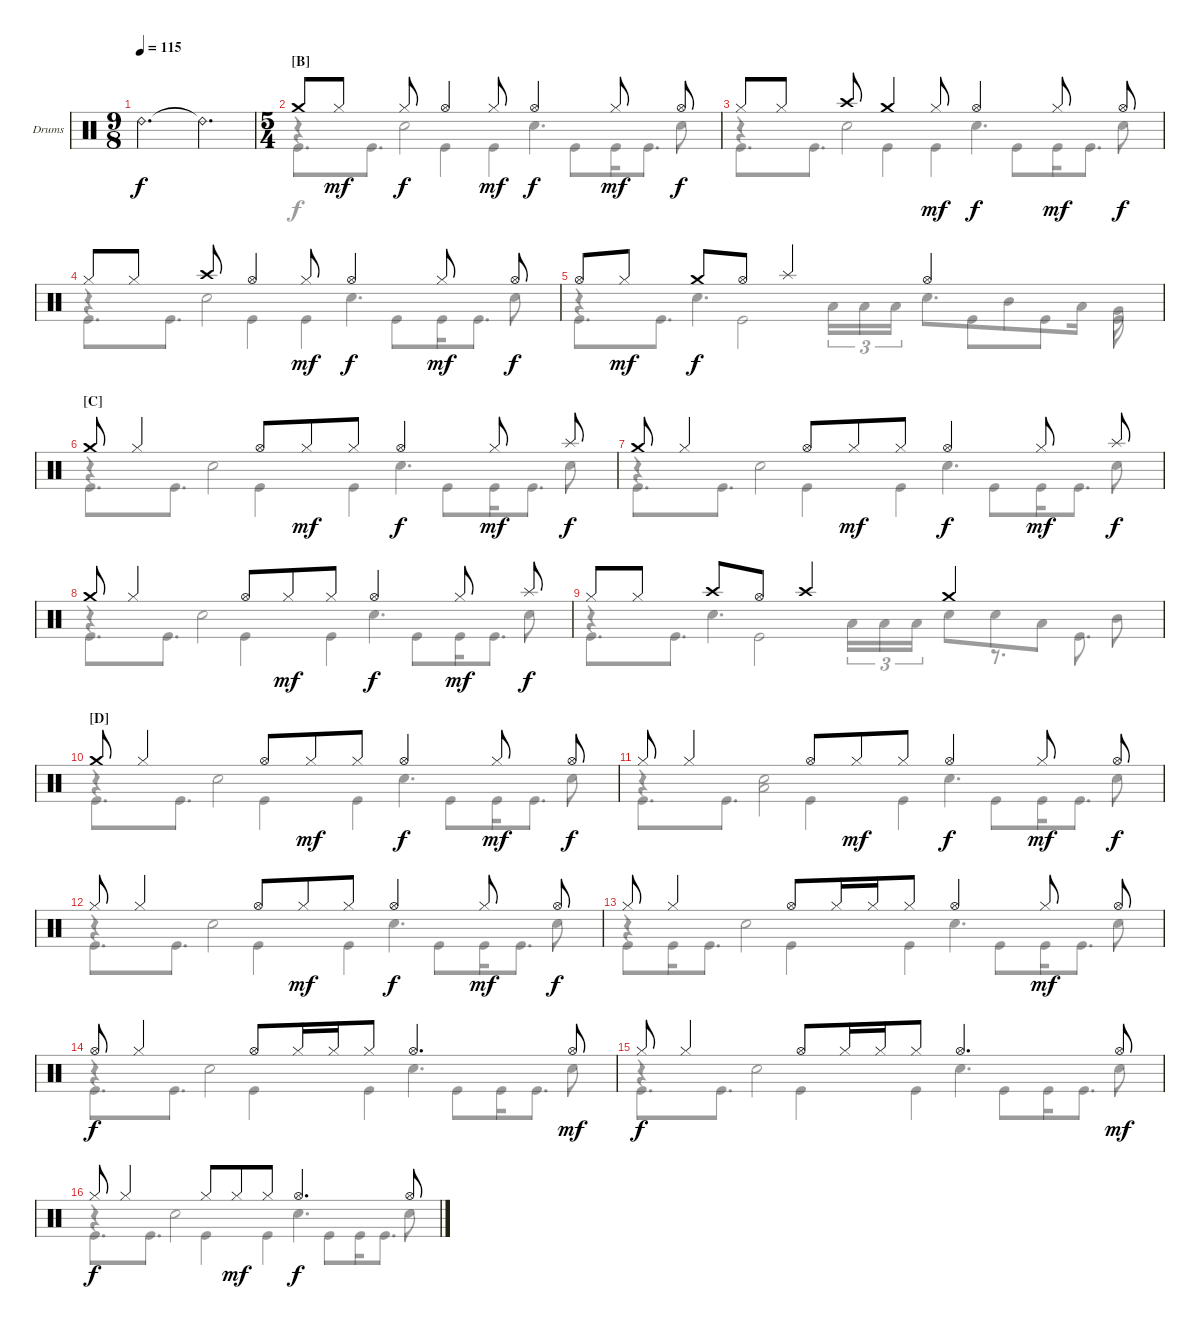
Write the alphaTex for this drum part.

\defaultSystemsLayout 4
\bracketExtendMode groupsimilarinstruments
\firstSystemTrackNameOrientation horizontal
\otherSystemsTrackNameOrientation horizontal
\track ("Drumkit" "Drums") {instrument percussion}
\staff {score}
\articulation defaults
\voice
\ts (9 8)
\beaming (8 3 3 4)
\tempo 115
\clef neutral
\ks c "Ride (bell) 2"{t}.2{d dy f} "Ride (bell) 2"{t}.4{d}
|
\ts (5 4)
\beaming (8 2 4 3 1)
\section ("B" "")
"Crash medium (hit)".8 "Hi-Hat (closed)".8{dy mf} "Hi-Hat (closed)".8{dy f} "Hi-Hat (open)".4 "Hi-Hat (closed)".8{dy mf} "Hi-Hat (open)".4{dy f} "Hi-Hat (closed)".8{dy mf} "Hi-Hat (open)".8{dy f} |
"Hi-Hat (closed)".8 "Hi-Hat (closed)".8 "Crash high (hit)".8 "Crash medium (hit)".4 "Hi-Hat (closed)".8{dy mf} "Hi-Hat (open)".4{dy f} "Hi-Hat (closed)".8{dy mf} "Hi-Hat (open)".8{dy f} |
"Hi-Hat (closed)".8 "Hi-Hat (closed)".8 "Crash high (hit)".8 "Hi-Hat (open)".4 "Hi-Hat (closed)".8{dy mf} "Hi-Hat (open)".4{dy f} "Hi-Hat (closed)".8{dy mf} "Hi-Hat (open)".8{dy f} |
"Hi-Hat (open)".8 "Hi-Hat (closed)".8{dy mf} "Crash medium (hit)".8{dy f} "Hi-Hat (open)".8 "Splash (hit)".4 "Hi-Hat (open)".2 |
\section ("C" "")
"Crash medium (hit)".8 "Hi-Hat (closed)".4 "Hi-Hat (open)".8 "Hi-Hat (closed)".8{dy mf} "Hi-Hat (closed)".8 "Hi-Hat (open)".4{dy f} "Hi-Hat (closed)".8{dy mf} "Splash (hit)".8{dy f} |
"Crash medium (hit)".8 "Hi-Hat (closed)".4 "Hi-Hat (open)".8 "Hi-Hat (closed)".8{dy mf} "Hi-Hat (closed)".8 "Hi-Hat (open)".4{dy f} "Hi-Hat (closed)".8{dy mf} "Splash (hit)".8{dy f} |
"Crash medium (hit)".8 "Hi-Hat (closed)".4 "Hi-Hat (open)".8 "Hi-Hat (closed)".8{dy mf} "Hi-Hat (closed)".8 "Hi-Hat (open)".4{dy f} "Hi-Hat (closed)".8{dy mf} "Splash (hit)".8{dy f} |
"Hi-Hat (closed)".8 "Hi-Hat (closed)".8 "Crash high (hit)".8 "Hi-Hat (open)".8 "Crash high (hit)".4 "Crash medium (hit)".2 |
\section ("D" "")
"Crash medium (hit)".8 "Hi-Hat (closed)".4 "Hi-Hat (open)".8 "Hi-Hat (closed)".8{dy mf} "Hi-Hat (closed)".8 "Hi-Hat (open)".4{dy f} "Hi-Hat (closed)".8{dy mf} "Hi-Hat (open)".8{dy f} |
"Hi-Hat (closed)".8 "Hi-Hat (closed)".4 "Hi-Hat (open)".8 "Hi-Hat (closed)".8{dy mf} "Hi-Hat (closed)".8 "Hi-Hat (open)".4{dy f} "Hi-Hat (closed)".8{dy mf} "Hi-Hat (open)".8{dy f} |
"Hi-Hat (closed)".8 "Hi-Hat (closed)".4 "Hi-Hat (open)".8 "Hi-Hat (closed)".8{dy mf} "Hi-Hat (closed)".8 "Hi-Hat (open)".4{dy f} "Hi-Hat (closed)".8{dy mf} "Hi-Hat (open)".8{dy f} |
"Hi-Hat (closed)".8 "Hi-Hat (closed)".4 "Hi-Hat (open)".8 "Hi-Hat (closed)".16 "Hi-Hat (closed)".16 "Hi-Hat (closed)".8 "Hi-Hat (open)".4 "Hi-Hat (closed)".8{dy mf} "Hi-Hat (open)".8 |
"Hi-Hat (open)".8{dy f} "Hi-Hat (closed)".4 "Hi-Hat (open)".8 "Hi-Hat (closed)".16 "Hi-Hat (closed)".16 "Hi-Hat (closed)".8 "Hi-Hat (open)".4{d} "Hi-Hat (open)".8{dy mf} |
"Hi-Hat (closed)".8{dy f} "Hi-Hat (closed)".4 "Hi-Hat (open)".8 "Hi-Hat (closed)".16 "Hi-Hat (closed)".16 "Hi-Hat (closed)".8 "Hi-Hat (open)".4{d} "Hi-Hat (open)".8{dy mf} |
"Hi-Hat (closed)".8{dy f} "Hi-Hat (closed)".4 "Hi-Hat (closed)".8 "Hi-Hat (closed)".8{dy mf} "Hi-Hat (closed)".8 "Hi-Hat (open)".4{d dy f} "Hi-Hat (open)".8
\voice
\clef neutral
\ottava regular
\simile none
\ks c
|
r.4 "Snare (hit) 2".2 "Snare (hit) 2".4{d} "Snare (hit) 2".8 |
r.4 "Snare (hit) 2".2 "Snare (hit) 2".4{d} "Snare (hit) 2".8 |
r.4 "Snare (hit) 2".2 "Snare (hit) 2".4{d} "Snare (hit) 2".8 |
r.4 "Snare (hit) 2".4{d} "Low Tom (hit)".16{tu (3 2)} "Low Tom (hit)".16{tu (3 2)} "Low Tom (hit)".16{tu (3 2)} "Snare (hit) 2".8{d} "Mid Tom (hit)".8 "Low Tom (hit)".16 "Very Low Tom (hit)".8 |
r.4 "Snare (hit) 2".2 "Snare (hit) 2".4{d} "Snare (hit) 2".8 |
r.4 "Snare (hit) 2".2 "Snare (hit) 2".4{d} "Snare (hit) 2".8 |
r.4 "Snare (hit) 2".2 "Snare (hit) 2".4{d} "Snare (hit) 2".8 |
r.4 "Snare (hit) 2".4{d} "Low Tom (hit)".16{tu (3 2)} "Low Tom (hit)".16{tu (3 2)} "Low Tom (hit)".16{tu (3 2)} "Snare (hit) 2".8 "Snare (hit) 2".8 "Low Tom (hit)".8 "Mid Tom (hit)".8 |
r.4 "Snare (hit) 2".2 "Snare (hit) 2".4{d} "Snare (hit) 2".8 |
r.4 ("Snare (hit) 2" "Low Tom (hit)").2 "Snare (hit) 2".4{d} "Snare (hit) 2".8 |
r.4 "Snare (hit) 2".2 "Snare (hit) 2".4{d} "Snare (hit) 2".8 |
r.4 "Snare (hit) 2".2 "Snare (hit) 2".4{d} "Snare (hit) 2".8 |
r.4 "Snare (hit) 2".2 "Snare (hit) 2".4{d} "Snare (hit) 2".8 |
r.4 "Snare (hit) 2".2 "Snare (hit) 2".4{d} "Snare (hit) 2".8 |
r.4 "Snare (hit) 2".2 "Snare (hit) 2".4{d} "Snare (hit) 2".8
\voice
\clef neutral
\ottava regular
\simile none
\ks c
|
"Kick (hit)".8{d} "Kick (hit)".8{d} "Kick (hit)".4 "Kick (hit)".4 "Kick (hit)".8 "Kick (hit)".16 "Kick (hit)".8{d} |
"Kick (hit)".8{d} "Kick (hit)".8{d} "Kick (hit)".4 "Kick (hit)".4 "Kick (hit)".8 "Kick (hit)".16 "Kick (hit)".8{d} |
"Kick (hit)".8{d} "Kick (hit)".8{d} "Kick (hit)".4 "Kick (hit)".4 "Kick (hit)".8 "Kick (hit)".16 "Kick (hit)".8{d} |
"Kick (hit)".8{d} "Kick (hit)".8{d} "Kick (hit)".2 "Kick (hit)".8 "Kick (hit)".8 "Kick (hit)".8 |
"Kick (hit)".8{d} "Kick (hit)".8{d} "Kick (hit)".4 "Kick (hit)".4 "Kick (hit)".8 "Kick (hit)".16 "Kick (hit)".8{d} |
"Kick (hit)".8{d} "Kick (hit)".8{d} "Kick (hit)".4 "Kick (hit)".4 "Kick (hit)".8 "Kick (hit)".16 "Kick (hit)".8{d} |
"Kick (hit)".8{d} "Kick (hit)".8{d} "Kick (hit)".4 "Kick (hit)".4 "Kick (hit)".8 "Kick (hit)".16 "Kick (hit)".8{d} |
"Kick (hit)".8{d} "Kick (hit)".8{d} "Kick (hit)".2 r.8{d} "Kick (hit)".8{d} |
"Kick (hit)".8{d} "Kick (hit)".8{d} "Kick (hit)".4 "Kick (hit)".4 "Kick (hit)".8 "Kick (hit)".16 "Kick (hit)".8{d} |
"Kick (hit)".8{d} "Kick (hit)".8{d} "Kick (hit)".4 "Kick (hit)".4 "Kick (hit)".8 "Kick (hit)".16 "Kick (hit)".8{d} |
"Kick (hit)".8{d} "Kick (hit)".8{d} "Kick (hit)".4 "Kick (hit)".4 "Kick (hit)".8 "Kick (hit)".16 "Kick (hit)".8{d} |
"Kick (hit)".8 "Kick (hit)".16 "Kick (hit)".8{d} "Kick (hit)".4 "Kick (hit)".4 "Kick (hit)".8 "Kick (hit)".16 "Kick (hit)".8{d} |
"Kick (hit)".8{d} "Kick (hit)".8{d} "Kick (hit)".4 "Kick (hit)".4 "Kick (hit)".8 "Kick (hit)".16 "Kick (hit)".8{d} |
"Kick (hit)".8{d} "Kick (hit)".8{d} "Kick (hit)".4 "Kick (hit)".4 "Kick (hit)".8 "Kick (hit)".16 "Kick (hit)".8{d} |
"Kick (hit)".8{d} "Kick (hit)".8{d} "Kick (hit)".4 "Kick (hit)".4 "Kick (hit)".8 "Kick (hit)".16 "Kick (hit)".8{d}
